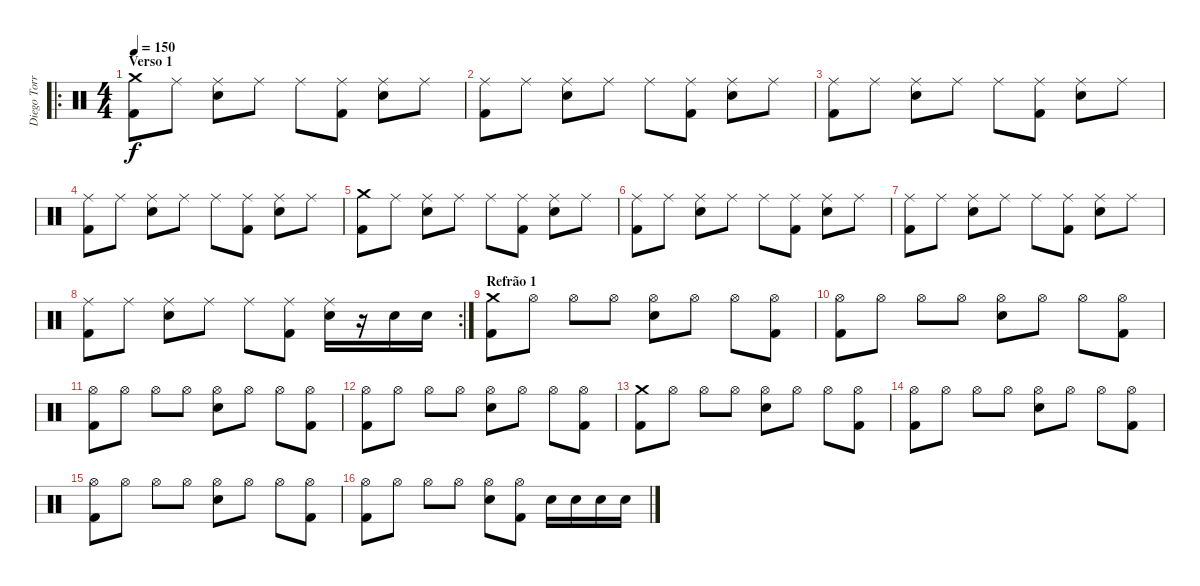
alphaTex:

\track ("Diego Torres [Bateria]" "Diego Torr") {instrument percussion}
\staff {score}
\articulation defaults
\ro
\ts (4 4)
\section ("" "Verso 1")
\tempo 150
\clef neutral
\ks c
("Crash medium (hit)" "Kick (hit) 2").8{dy f} "Ride (middle)".8 ("Ride (middle)" "Electric Snare (hit)").8 "Ride (middle)".8 "Ride (middle)".8 ("Ride (middle)" "Kick (hit) 2").8 ("Ride (middle)" "Electric Snare (hit)").8 "Ride (middle)".8 |
("Ride (middle)" "Kick (hit) 2").8 "Ride (middle)".8 ("Ride (middle)" "Electric Snare (hit)").8 "Ride (middle)".8 "Ride (middle)".8 ("Ride (middle)" "Kick (hit) 2").8 ("Ride (middle)" "Electric Snare (hit)").8 "Ride (middle)".8 |
("Ride (middle)" "Kick (hit) 2").8 "Ride (middle)".8 ("Ride (middle)" "Electric Snare (hit)").8 "Ride (middle)".8 "Ride (middle)".8 ("Ride (middle)" "Kick (hit) 2").8 ("Ride (middle)" "Electric Snare (hit)").8 "Ride (middle)".8 |
("Ride (middle)" "Kick (hit) 2").8 "Ride (middle)".8 ("Ride (middle)" "Electric Snare (hit)").8 "Ride (middle)".8 "Ride (middle)".8 ("Ride (middle)" "Kick (hit) 2").8 ("Ride (middle)" "Electric Snare (hit)").8 "Ride (middle)".8 |
("Crash medium (hit)" "Kick (hit) 2").8 "Ride (middle)".8 ("Ride (middle)" "Electric Snare (hit)").8 "Ride (middle)".8 "Ride (middle)".8 ("Ride (middle)" "Kick (hit) 2").8 ("Ride (middle)" "Electric Snare (hit)").8 "Ride (middle)".8 |
("Ride (middle)" "Kick (hit) 2").8 "Ride (middle)".8 ("Ride (middle)" "Electric Snare (hit)").8 "Ride (middle)".8 "Ride (middle)".8 ("Ride (middle)" "Kick (hit) 2").8 ("Ride (middle)" "Electric Snare (hit)").8 "Ride (middle)".8 |
("Ride (middle)" "Kick (hit) 2").8 "Ride (middle)".8 ("Ride (middle)" "Electric Snare (hit)").8 "Ride (middle)".8 "Ride (middle)".8 ("Ride (middle)" "Kick (hit) 2").8 ("Ride (middle)" "Electric Snare (hit)").8 "Ride (middle)".8 |
\rc 2
("Ride (middle)" "Kick (hit) 2").8 "Ride (middle)".8 ("Ride (middle)" "Electric Snare (hit)").8 "Ride (middle)".8 "Ride (middle)".8 ("Ride (middle)" "Kick (hit) 2").8 ("Ride (middle)" "Electric Snare (hit)").16 r.16 "Electric Snare (hit)".16 "Electric Snare (hit)".16 |
\section ("" "Refrão 1")
("Crash medium (hit)" "Kick (hit) 2").8 "Hi-Hat (open)".8 "Hi-Hat (open)".8 "Hi-Hat (open)".8 ("Hi-Hat (open)" "Electric Snare (hit)").8 "Hi-Hat (open)".8 "Hi-Hat (open)".8 ("Hi-Hat (open)" "Kick (hit) 2").8 |
("Hi-Hat (open)" "Kick (hit) 2").8 "Hi-Hat (open)".8 "Hi-Hat (open)".8 "Hi-Hat (open)".8 ("Hi-Hat (open)" "Electric Snare (hit)").8 "Hi-Hat (open)".8 "Hi-Hat (open)".8 ("Hi-Hat (open)" "Kick (hit) 2").8 |
("Hi-Hat (open)" "Kick (hit) 2").8 "Hi-Hat (open)".8 "Hi-Hat (open)".8 "Hi-Hat (open)".8 ("Hi-Hat (open)" "Electric Snare (hit)").8 "Hi-Hat (open)".8 "Hi-Hat (open)".8 ("Hi-Hat (open)" "Kick (hit) 2").8 |
("Hi-Hat (open)" "Kick (hit) 2").8 "Hi-Hat (open)".8 "Hi-Hat (open)".8 "Hi-Hat (open)".8 ("Hi-Hat (open)" "Electric Snare (hit)").8 "Hi-Hat (open)".8 "Hi-Hat (open)".8 ("Hi-Hat (open)" "Kick (hit) 2").8 |
("Crash medium (hit)" "Kick (hit) 2").8 "Hi-Hat (open)".8 "Hi-Hat (open)".8 "Hi-Hat (open)".8 ("Hi-Hat (open)" "Electric Snare (hit)").8 "Hi-Hat (open)".8 "Hi-Hat (open)".8 ("Hi-Hat (open)" "Kick (hit) 2").8 |
("Hi-Hat (open)" "Kick (hit) 2").8 "Hi-Hat (open)".8 "Hi-Hat (open)".8 "Hi-Hat (open)".8 ("Hi-Hat (open)" "Electric Snare (hit)").8 "Hi-Hat (open)".8 "Hi-Hat (open)".8 ("Hi-Hat (open)" "Kick (hit) 2").8 |
("Hi-Hat (open)" "Kick (hit) 2").8 "Hi-Hat (open)".8 "Hi-Hat (open)".8 "Hi-Hat (open)".8 ("Hi-Hat (open)" "Electric Snare (hit)").8 "Hi-Hat (open)".8 "Hi-Hat (open)".8 ("Hi-Hat (open)" "Kick (hit) 2").8 |
("Hi-Hat (open)" "Kick (hit) 2").8 "Hi-Hat (open)".8 "Hi-Hat (open)".8 "Hi-Hat (open)".8 ("Hi-Hat (open)" "Electric Snare (hit)").8 ("Hi-Hat (open)" "Kick (hit) 2").8 "Electric Snare (hit)".16 "Electric Snare (hit)".16 "Electric Snare (hit)".16 "Electric Snare (hit)".16
